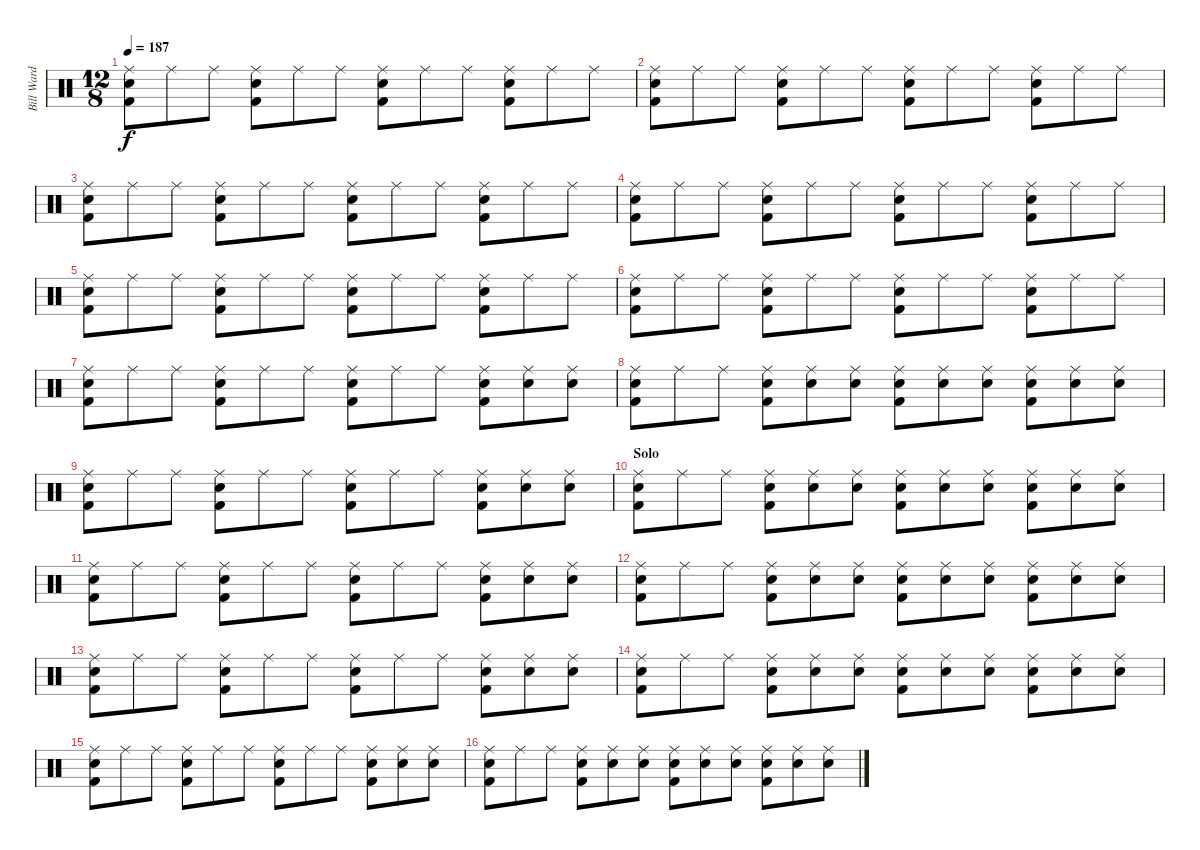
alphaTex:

\track ("Bill Ward - Drums" "Bill Ward ") {instrument percussion}
\staff {score}
\articulation defaults
\ts (12 8)
\tempo 187
\clef neutral
\ks c
("Ride (middle)" "Snare (hit) 2" "Kick (hit) 2").8{dy f} "Ride (middle)".8 "Ride (middle)".8 ("Ride (middle)" "Snare (hit) 2" "Kick (hit) 2").8 "Ride (middle)".8 "Ride (middle)".8 ("Ride (middle)" "Snare (hit) 2" "Kick (hit) 2").8 "Ride (middle)".8 "Ride (middle)".8 ("Ride (middle)" "Snare (hit) 2" "Kick (hit) 2").8 "Ride (middle)".8 "Ride (middle)".8 |
("Ride (middle)" "Snare (hit) 2" "Kick (hit) 2").8 "Ride (middle)".8 "Ride (middle)".8 ("Ride (middle)" "Snare (hit) 2" "Kick (hit) 2").8 "Ride (middle)".8 "Ride (middle)".8 ("Ride (middle)" "Snare (hit) 2" "Kick (hit) 2").8 "Ride (middle)".8 "Ride (middle)".8 ("Ride (middle)" "Snare (hit) 2" "Kick (hit) 2").8 "Ride (middle)".8 "Ride (middle)".8 |
("Ride (middle)" "Snare (hit) 2" "Kick (hit) 2").8 "Ride (middle)".8 "Ride (middle)".8 ("Ride (middle)" "Snare (hit) 2" "Kick (hit) 2").8 "Ride (middle)".8 "Ride (middle)".8 ("Ride (middle)" "Snare (hit) 2" "Kick (hit) 2").8 "Ride (middle)".8 "Ride (middle)".8 ("Ride (middle)" "Snare (hit) 2" "Kick (hit) 2").8 "Ride (middle)".8 "Ride (middle)".8 |
("Ride (middle)" "Snare (hit) 2" "Kick (hit) 2").8 "Ride (middle)".8 "Ride (middle)".8 ("Ride (middle)" "Snare (hit) 2" "Kick (hit) 2").8 "Ride (middle)".8 "Ride (middle)".8 ("Ride (middle)" "Snare (hit) 2" "Kick (hit) 2").8 "Ride (middle)".8 "Ride (middle)".8 ("Ride (middle)" "Snare (hit) 2" "Kick (hit) 2").8 "Ride (middle)".8 "Ride (middle)".8 |
("Ride (middle)" "Snare (hit) 2" "Kick (hit) 2").8 "Ride (middle)".8 "Ride (middle)".8 ("Ride (middle)" "Snare (hit) 2" "Kick (hit) 2").8 "Ride (middle)".8 "Ride (middle)".8 ("Ride (middle)" "Snare (hit) 2" "Kick (hit) 2").8 "Ride (middle)".8 "Ride (middle)".8 ("Ride (middle)" "Snare (hit) 2" "Kick (hit) 2").8 "Ride (middle)".8 "Ride (middle)".8 |
("Ride (middle)" "Snare (hit) 2" "Kick (hit) 2").8 "Ride (middle)".8 "Ride (middle)".8 ("Ride (middle)" "Snare (hit) 2" "Kick (hit) 2").8 "Ride (middle)".8 "Ride (middle)".8 ("Ride (middle)" "Snare (hit) 2" "Kick (hit) 2").8 "Ride (middle)".8 "Ride (middle)".8 ("Ride (middle)" "Snare (hit) 2" "Kick (hit) 2").8 "Ride (middle)".8 "Ride (middle)".8 |
("Ride (middle)" "Snare (hit) 2" "Kick (hit) 2").8 "Ride (middle)".8 "Ride (middle)".8 ("Ride (middle)" "Snare (hit) 2" "Kick (hit) 2").8 "Ride (middle)".8 "Ride (middle)".8 ("Ride (middle)" "Snare (hit) 2" "Kick (hit) 2").8 "Ride (middle)".8 "Ride (middle)".8 ("Ride (middle)" "Snare (hit) 2" "Kick (hit) 2").8 ("Ride (middle)" "Snare (hit) 2").8 ("Ride (middle)" "Snare (hit) 2").8 |
("Ride (middle)" "Snare (hit) 2" "Kick (hit) 2").8 "Ride (middle)".8 "Ride (middle)".8 ("Ride (middle)" "Snare (hit) 2" "Kick (hit) 2").8 ("Ride (middle)" "Snare (hit) 2").8 ("Ride (middle)" "Snare (hit) 2").8 ("Ride (middle)" "Snare (hit) 2" "Kick (hit) 2").8 ("Ride (middle)" "Snare (hit) 2").8 ("Ride (middle)" "Snare (hit) 2").8 ("Ride (middle)" "Snare (hit) 2" "Kick (hit) 2").8 ("Ride (middle)" "Snare (hit) 2").8 ("Ride (middle)" "Snare (hit) 2").8 |
("Ride (middle)" "Snare (hit) 2" "Kick (hit) 2").8 "Ride (middle)".8 "Ride (middle)".8 ("Ride (middle)" "Snare (hit) 2" "Kick (hit) 2").8 "Ride (middle)".8 "Ride (middle)".8 ("Ride (middle)" "Snare (hit) 2" "Kick (hit) 2").8 "Ride (middle)".8 "Ride (middle)".8 ("Ride (middle)" "Snare (hit) 2" "Kick (hit) 2").8 ("Ride (middle)" "Snare (hit) 2").8 ("Ride (middle)" "Snare (hit) 2").8 |
\section ("" "Solo")
("Ride (middle)" "Snare (hit) 2" "Kick (hit) 2").8 "Ride (middle)".8 "Ride (middle)".8 ("Ride (middle)" "Snare (hit) 2" "Kick (hit) 2").8 ("Ride (middle)" "Snare (hit) 2").8 ("Ride (middle)" "Snare (hit) 2").8 ("Ride (middle)" "Snare (hit) 2" "Kick (hit) 2").8 ("Ride (middle)" "Snare (hit) 2").8 ("Ride (middle)" "Snare (hit) 2").8 ("Ride (middle)" "Snare (hit) 2" "Kick (hit) 2").8 ("Ride (middle)" "Snare (hit) 2").8 ("Ride (middle)" "Snare (hit) 2").8 |
("Ride (middle)" "Snare (hit) 2" "Kick (hit) 2").8 "Ride (middle)".8 "Ride (middle)".8 ("Ride (middle)" "Snare (hit) 2" "Kick (hit) 2").8 "Ride (middle)".8 "Ride (middle)".8 ("Ride (middle)" "Snare (hit) 2" "Kick (hit) 2").8 "Ride (middle)".8 "Ride (middle)".8 ("Ride (middle)" "Snare (hit) 2" "Kick (hit) 2").8 ("Ride (middle)" "Snare (hit) 2").8 ("Ride (middle)" "Snare (hit) 2").8 |
("Ride (middle)" "Snare (hit) 2" "Kick (hit) 2").8 "Ride (middle)".8 "Ride (middle)".8 ("Ride (middle)" "Snare (hit) 2" "Kick (hit) 2").8 ("Ride (middle)" "Snare (hit) 2").8 ("Ride (middle)" "Snare (hit) 2").8 ("Ride (middle)" "Snare (hit) 2" "Kick (hit) 2").8 ("Ride (middle)" "Snare (hit) 2").8 ("Ride (middle)" "Snare (hit) 2").8 ("Ride (middle)" "Snare (hit) 2" "Kick (hit) 2").8 ("Ride (middle)" "Snare (hit) 2").8 ("Ride (middle)" "Snare (hit) 2").8 |
("Ride (middle)" "Snare (hit) 2" "Kick (hit) 2").8 "Ride (middle)".8 "Ride (middle)".8 ("Ride (middle)" "Snare (hit) 2" "Kick (hit) 2").8 "Ride (middle)".8 "Ride (middle)".8 ("Ride (middle)" "Snare (hit) 2" "Kick (hit) 2").8 "Ride (middle)".8 "Ride (middle)".8 ("Ride (middle)" "Snare (hit) 2" "Kick (hit) 2").8 ("Ride (middle)" "Snare (hit) 2").8 ("Ride (middle)" "Snare (hit) 2").8 |
("Ride (middle)" "Snare (hit) 2" "Kick (hit) 2").8 "Ride (middle)".8 "Ride (middle)".8 ("Ride (middle)" "Snare (hit) 2" "Kick (hit) 2").8 ("Ride (middle)" "Snare (hit) 2").8 ("Ride (middle)" "Snare (hit) 2").8 ("Ride (middle)" "Snare (hit) 2" "Kick (hit) 2").8 ("Ride (middle)" "Snare (hit) 2").8 ("Ride (middle)" "Snare (hit) 2").8 ("Ride (middle)" "Snare (hit) 2" "Kick (hit) 2").8 ("Ride (middle)" "Snare (hit) 2").8 ("Ride (middle)" "Snare (hit) 2").8 |
("Ride (middle)" "Snare (hit) 2" "Kick (hit) 2").8 "Ride (middle)".8 "Ride (middle)".8 ("Ride (middle)" "Snare (hit) 2" "Kick (hit) 2").8 "Ride (middle)".8 "Ride (middle)".8 ("Ride (middle)" "Snare (hit) 2" "Kick (hit) 2").8 "Ride (middle)".8 "Ride (middle)".8 ("Ride (middle)" "Snare (hit) 2" "Kick (hit) 2").8 ("Ride (middle)" "Snare (hit) 2").8 ("Ride (middle)" "Snare (hit) 2").8 |
("Ride (middle)" "Snare (hit) 2" "Kick (hit) 2").8 "Ride (middle)".8 "Ride (middle)".8 ("Ride (middle)" "Snare (hit) 2" "Kick (hit) 2").8 ("Ride (middle)" "Snare (hit) 2").8 ("Ride (middle)" "Snare (hit) 2").8 ("Ride (middle)" "Snare (hit) 2" "Kick (hit) 2").8 ("Ride (middle)" "Snare (hit) 2").8 ("Ride (middle)" "Snare (hit) 2").8 ("Ride (middle)" "Snare (hit) 2" "Kick (hit) 2").8 ("Ride (middle)" "Snare (hit) 2").8 ("Ride (middle)" "Snare (hit) 2").8
